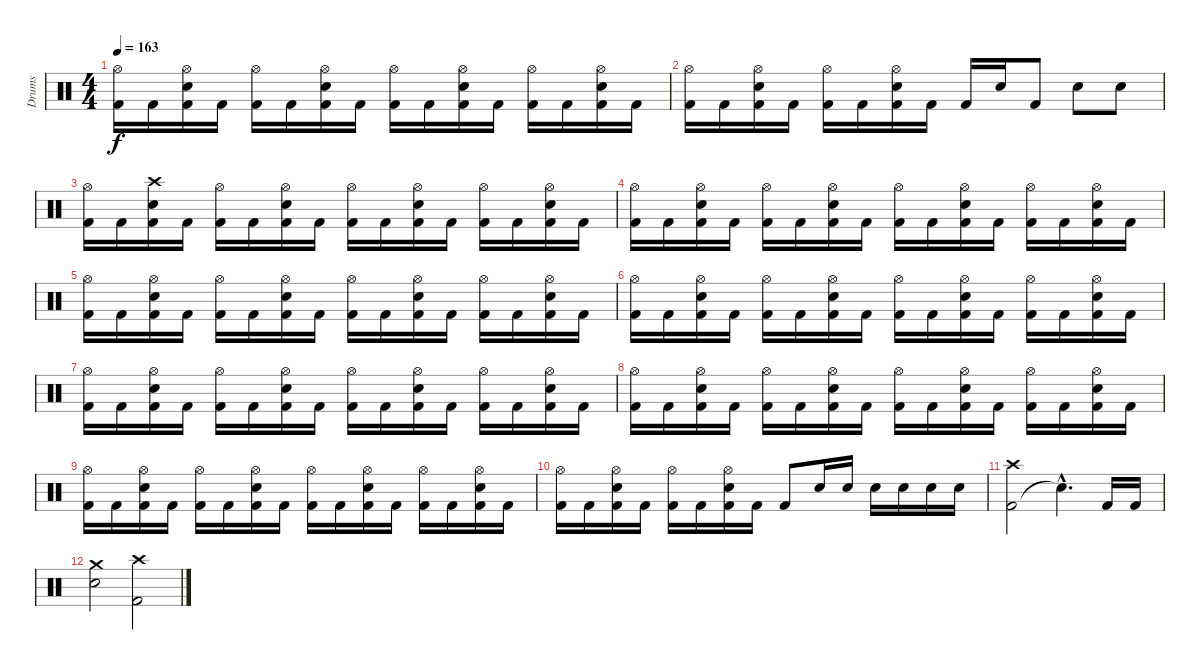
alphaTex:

\track ("Drums" "Drums") {instrument percussion}
\staff {score}
\articulation defaults
\ts (4 4)
\tempo 163
\clef neutral
\ks c
("Hi-Hat (open)" "Kick (hit) 2").16{dy f} "Kick (hit) 2".16 ("Hi-Hat (open)" "Kick (hit) 2" "Snare (hit) 2").16 "Kick (hit) 2".16 ("Hi-Hat (open)" "Kick (hit) 2").16 "Kick (hit) 2".16 ("Hi-Hat (open)" "Kick (hit) 2" "Snare (hit) 2").16 "Kick (hit) 2".16 ("Hi-Hat (open)" "Kick (hit) 2").16 "Kick (hit) 2".16 ("Hi-Hat (open)" "Kick (hit) 2" "Snare (hit) 2").16 "Kick (hit) 2".16 ("Hi-Hat (open)" "Kick (hit) 2").16 "Kick (hit) 2".16 ("Hi-Hat (open)" "Kick (hit) 2" "Snare (hit) 2").16 "Kick (hit) 2".16 |
("Hi-Hat (open)" "Kick (hit) 2").16 "Kick (hit) 2".16 ("Hi-Hat (open)" "Kick (hit) 2" "Snare (hit) 2").16 "Kick (hit) 2".16 ("Hi-Hat (open)" "Kick (hit) 2").16 "Kick (hit) 2".16 ("Hi-Hat (open)" "Kick (hit) 2" "Snare (hit) 2").16 "Kick (hit) 2".16 "Kick (hit) 2".16 "Snare (hit) 2".16 "Kick (hit) 2".8 "Snare (hit) 2".8 "Snare (hit) 2".8 |
("Hi-Hat (open)" "Kick (hit) 2").16 "Kick (hit) 2".16 ("Crash high (hit)" "Kick (hit) 2" "Snare (hit) 2").16 "Kick (hit) 2".16 ("Hi-Hat (open)" "Kick (hit) 2").16 "Kick (hit) 2".16 ("Hi-Hat (open)" "Kick (hit) 2" "Snare (hit) 2").16 "Kick (hit) 2".16 ("Hi-Hat (open)" "Kick (hit) 2").16 "Kick (hit) 2".16 ("Hi-Hat (open)" "Kick (hit) 2" "Snare (hit) 2").16 "Kick (hit) 2".16 ("Hi-Hat (open)" "Kick (hit) 2").16 "Kick (hit) 2".16 ("Hi-Hat (open)" "Kick (hit) 2" "Snare (hit) 2").16 "Kick (hit) 2".16 |
("Hi-Hat (open)" "Kick (hit) 2").16 "Kick (hit) 2".16 ("Hi-Hat (open)" "Kick (hit) 2" "Snare (hit) 2").16 "Kick (hit) 2".16 ("Hi-Hat (open)" "Kick (hit) 2").16 "Kick (hit) 2".16 ("Hi-Hat (open)" "Kick (hit) 2" "Snare (hit) 2").16 "Kick (hit) 2".16 ("Hi-Hat (open)" "Kick (hit) 2").16 "Kick (hit) 2".16 ("Hi-Hat (open)" "Kick (hit) 2" "Snare (hit) 2").16 "Kick (hit) 2".16 ("Hi-Hat (open)" "Kick (hit) 2").16 "Kick (hit) 2".16 ("Hi-Hat (open)" "Kick (hit) 2" "Snare (hit) 2").16 "Kick (hit) 2".16 |
("Hi-Hat (open)" "Kick (hit) 2").16 "Kick (hit) 2".16 ("Hi-Hat (open)" "Kick (hit) 2" "Snare (hit) 2").16 "Kick (hit) 2".16 ("Hi-Hat (open)" "Kick (hit) 2").16 "Kick (hit) 2".16 ("Hi-Hat (open)" "Kick (hit) 2" "Snare (hit) 2").16 "Kick (hit) 2".16 ("Hi-Hat (open)" "Kick (hit) 2").16 "Kick (hit) 2".16 ("Hi-Hat (open)" "Kick (hit) 2" "Snare (hit) 2").16 "Kick (hit) 2".16 ("Hi-Hat (open)" "Kick (hit) 2").16 "Kick (hit) 2".16 ("Hi-Hat (open)" "Kick (hit) 2" "Snare (hit) 2").16 "Kick (hit) 2".16 |
("Hi-Hat (open)" "Kick (hit) 2").16 "Kick (hit) 2".16 ("Hi-Hat (open)" "Kick (hit) 2" "Snare (hit) 2").16 "Kick (hit) 2".16 ("Hi-Hat (open)" "Kick (hit) 2").16 "Kick (hit) 2".16 ("Hi-Hat (open)" "Kick (hit) 2" "Snare (hit) 2").16 "Kick (hit) 2".16 ("Hi-Hat (open)" "Kick (hit) 2").16 "Kick (hit) 2".16 ("Hi-Hat (open)" "Kick (hit) 2" "Snare (hit) 2").16 "Kick (hit) 2".16 ("Hi-Hat (open)" "Kick (hit) 2").16 "Kick (hit) 2".16 ("Hi-Hat (open)" "Kick (hit) 2" "Snare (hit) 2").16 "Kick (hit) 2".16 |
("Hi-Hat (open)" "Kick (hit) 2").16 "Kick (hit) 2".16 ("Hi-Hat (open)" "Kick (hit) 2" "Snare (hit) 2").16 "Kick (hit) 2".16 ("Hi-Hat (open)" "Kick (hit) 2").16 "Kick (hit) 2".16 ("Hi-Hat (open)" "Kick (hit) 2" "Snare (hit) 2").16 "Kick (hit) 2".16 ("Hi-Hat (open)" "Kick (hit) 2").16 "Kick (hit) 2".16 ("Hi-Hat (open)" "Kick (hit) 2" "Snare (hit) 2").16 "Kick (hit) 2".16 ("Hi-Hat (open)" "Kick (hit) 2").16 "Kick (hit) 2".16 ("Hi-Hat (open)" "Kick (hit) 2" "Snare (hit) 2").16 "Kick (hit) 2".16 |
("Hi-Hat (open)" "Kick (hit) 2").16 "Kick (hit) 2".16 ("Hi-Hat (open)" "Kick (hit) 2" "Snare (hit) 2").16 "Kick (hit) 2".16 ("Hi-Hat (open)" "Kick (hit) 2").16 "Kick (hit) 2".16 ("Hi-Hat (open)" "Kick (hit) 2" "Snare (hit) 2").16 "Kick (hit) 2".16 ("Hi-Hat (open)" "Kick (hit) 2").16 "Kick (hit) 2".16 ("Hi-Hat (open)" "Kick (hit) 2" "Snare (hit) 2").16 "Kick (hit) 2".16 ("Hi-Hat (open)" "Kick (hit) 2").16 "Kick (hit) 2".16 ("Hi-Hat (open)" "Kick (hit) 2" "Snare (hit) 2").16 "Kick (hit) 2".16 |
("Hi-Hat (open)" "Kick (hit) 2").16 "Kick (hit) 2".16 ("Hi-Hat (open)" "Kick (hit) 2" "Snare (hit) 2").16 "Kick (hit) 2".16 ("Hi-Hat (open)" "Kick (hit) 2").16 "Kick (hit) 2".16 ("Hi-Hat (open)" "Kick (hit) 2" "Snare (hit) 2").16 "Kick (hit) 2".16 ("Hi-Hat (open)" "Kick (hit) 2").16 "Kick (hit) 2".16 ("Hi-Hat (open)" "Kick (hit) 2" "Snare (hit) 2").16 "Kick (hit) 2".16 ("Hi-Hat (open)" "Kick (hit) 2").16 "Kick (hit) 2".16 ("Hi-Hat (open)" "Kick (hit) 2" "Snare (hit) 2").16 "Kick (hit) 2".16 |
("Hi-Hat (open)" "Kick (hit) 2").16 "Kick (hit) 2".16 ("Hi-Hat (open)" "Kick (hit) 2" "Snare (hit) 2").16 "Kick (hit) 2".16 ("Hi-Hat (open)" "Kick (hit) 2").16 "Kick (hit) 2".16 ("Hi-Hat (open)" "Kick (hit) 2" "Snare (hit) 2").16 "Kick (hit) 2".16 "Kick (hit) 2".8 "Snare (hit) 2".16 "Snare (hit) 2".16 "Snare (hit) 2".16 "Snare (hit) 2".16 "Snare (hit) 2".16 "Snare (hit) 2".16 |
("Kick (hit) 2" "Crash high (hit)").2 "Snare (hit)"{hac t}.4{d} "Kick (hit) 2".16 "Kick (hit) 2".16 |
("Snare (hit) 2" "Crash medium (hit)").2 ("Crash high (hit)" "Kick (hit) 2").2
